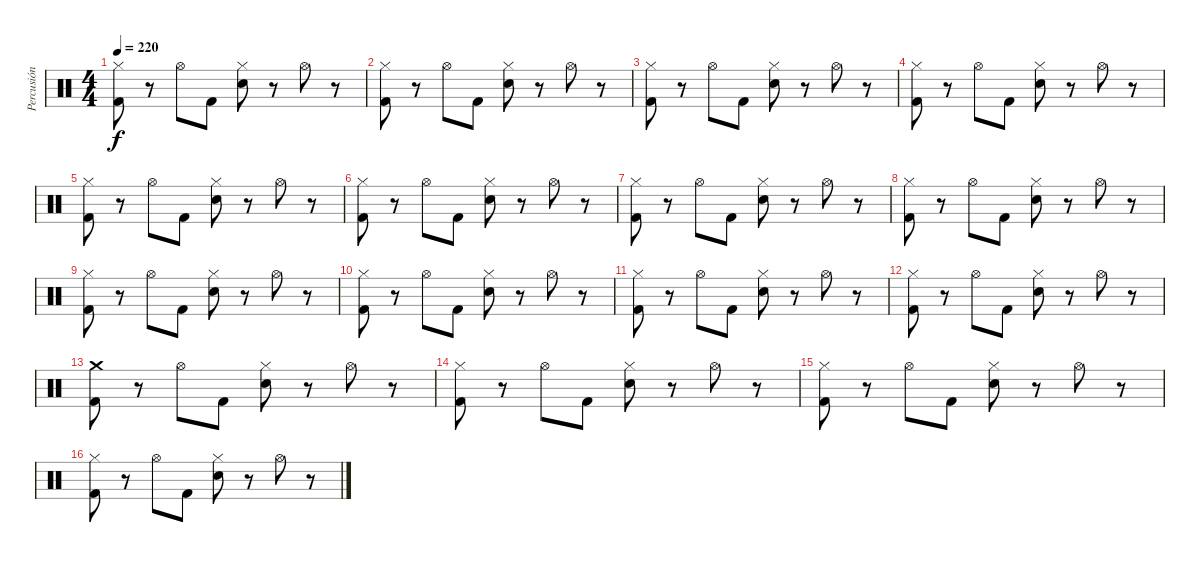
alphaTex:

\track ("Percusión" "Percusión") {instrument percussion}
\staff {score}
\articulation defaults
\ts (4 4)
\tempo 220
\clef neutral
\ks c
("Hi-Hat (closed)" "Kick (hit) 2").8{dy f} r.8 "Hi-Hat (open)".8 "Kick (hit) 2".8 ("Hi-Hat (closed)" "Snare (hit) 2").8 r.8 "Hi-Hat (open)".8 r.8 |
("Hi-Hat (closed)" "Kick (hit) 2").8 r.8 "Hi-Hat (open)".8 "Kick (hit) 2".8 ("Hi-Hat (closed)" "Snare (hit) 2").8 r.8 "Hi-Hat (open)".8 r.8 |
("Hi-Hat (closed)" "Kick (hit) 2").8 r.8 "Hi-Hat (open)".8 "Kick (hit) 2".8 ("Hi-Hat (closed)" "Snare (hit) 2").8 r.8 "Hi-Hat (open)".8 r.8 |
("Hi-Hat (closed)" "Kick (hit) 2").8 r.8 "Hi-Hat (open)".8 "Kick (hit) 2".8 ("Hi-Hat (closed)" "Snare (hit) 2").8 r.8 "Hi-Hat (open)".8 r.8 |
("Hi-Hat (closed)" "Kick (hit) 2").8 r.8 "Hi-Hat (open)".8 "Kick (hit) 2".8 ("Hi-Hat (closed)" "Snare (hit) 2").8 r.8 "Hi-Hat (open)".8 r.8 |
("Hi-Hat (closed)" "Kick (hit) 2").8 r.8 "Hi-Hat (open)".8 "Kick (hit) 2".8 ("Hi-Hat (closed)" "Snare (hit) 2").8 r.8 "Hi-Hat (open)".8 r.8 |
("Hi-Hat (closed)" "Kick (hit) 2").8 r.8 "Hi-Hat (open)".8 "Kick (hit) 2".8 ("Hi-Hat (closed)" "Snare (hit) 2").8 r.8 "Hi-Hat (open)".8 r.8 |
("Hi-Hat (closed)" "Kick (hit) 2").8 r.8 "Hi-Hat (open)".8 "Kick (hit) 2".8 ("Hi-Hat (closed)" "Snare (hit) 2").8 r.8 "Hi-Hat (open)".8 r.8 |
("Hi-Hat (closed)" "Kick (hit) 2").8 r.8 "Hi-Hat (open)".8 "Kick (hit) 2".8 ("Hi-Hat (closed)" "Snare (hit) 2").8 r.8 "Hi-Hat (open)".8 r.8 |
("Hi-Hat (closed)" "Kick (hit) 2").8 r.8 "Hi-Hat (open)".8 "Kick (hit) 2".8 ("Hi-Hat (closed)" "Snare (hit) 2").8 r.8 "Hi-Hat (open)".8 r.8 |
("Hi-Hat (closed)" "Kick (hit) 2").8 r.8 "Hi-Hat (open)".8 "Kick (hit) 2".8 ("Hi-Hat (closed)" "Snare (hit) 2").8 r.8 "Hi-Hat (open)".8 r.8 |
("Hi-Hat (closed)" "Kick (hit) 2").8 r.8 "Hi-Hat (open)".8 "Kick (hit) 2".8 ("Hi-Hat (closed)" "Snare (hit) 2").8 r.8 "Hi-Hat (open)".8 r.8 |
("Crash medium (hit)" "Kick (hit) 2").8 r.8 "Hi-Hat (open)".8 "Kick (hit) 2".8 ("Hi-Hat (closed)" "Snare (hit) 2").8 r.8 "Hi-Hat (open)".8 r.8 |
("Hi-Hat (closed)" "Kick (hit) 2").8 r.8 "Hi-Hat (open)".8 "Kick (hit) 2".8 ("Hi-Hat (closed)" "Snare (hit) 2").8 r.8 "Hi-Hat (open)".8 r.8 |
("Hi-Hat (closed)" "Kick (hit) 2").8 r.8 "Hi-Hat (open)".8 "Kick (hit) 2".8 ("Hi-Hat (closed)" "Snare (hit) 2").8 r.8 "Hi-Hat (open)".8 r.8 |
("Hi-Hat (closed)" "Kick (hit) 2").8 r.8 "Hi-Hat (open)".8 "Kick (hit) 2".8 ("Hi-Hat (closed)" "Snare (hit) 2").8 r.8 "Hi-Hat (open)".8 r.8
